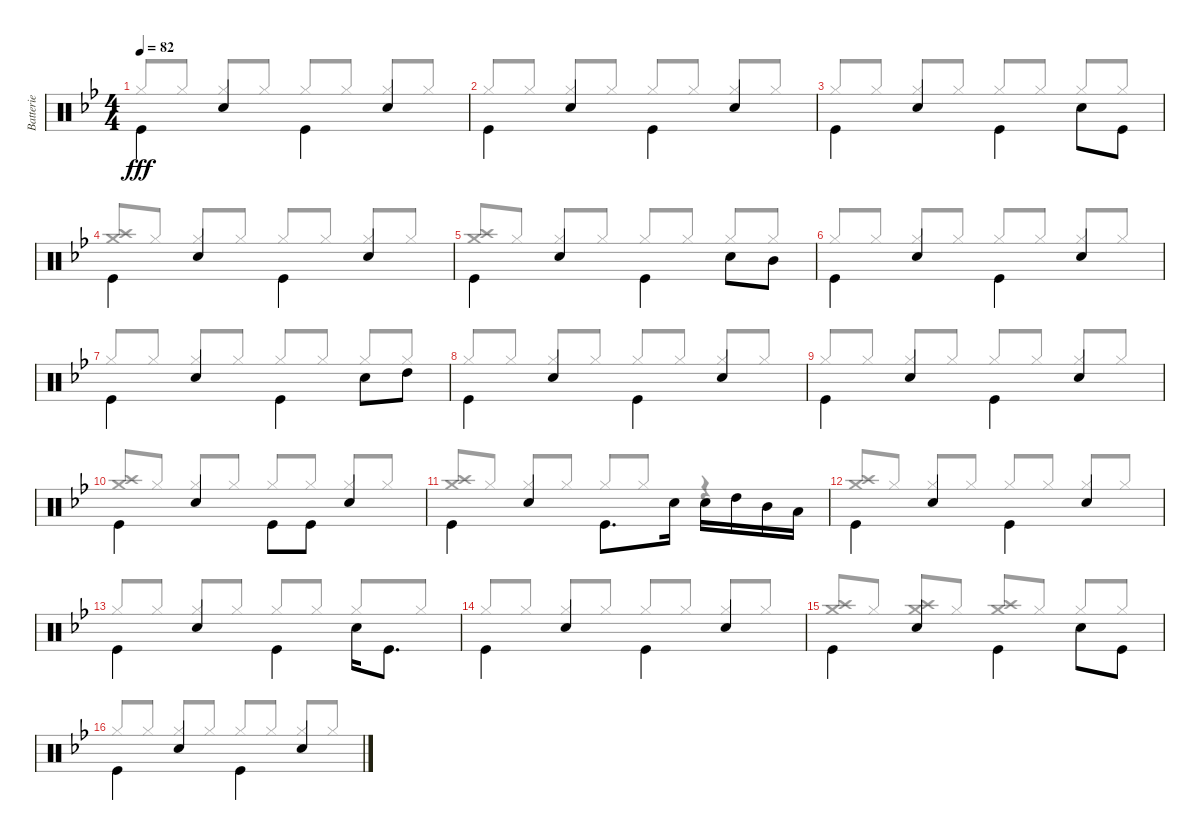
\track ("Batterie" "Batterie") {instrument percussion}
\staff {score}
\articulation defaults
\voice
\ts (4 4)
\tempo 82
\clef neutral
\ks bb "Kick (hit)".4{dy fff beam Down} "Snare (hit) 2".4 "Kick (hit)".4{beam Down} "Snare (hit) 2".4
|
"Kick (hit)".4{beam Down} "Snare (hit) 2".4 "Kick (hit)".4{beam Down} "Snare (hit) 2".4 |
"Kick (hit)".4{beam Down} "Snare (hit) 2".4 "Kick (hit)".4{beam Down} "Snare (hit) 2".8{beam Down} "Kick (hit)".8{beam Down} |
"Kick (hit)".4{beam Down} "Snare (hit) 2".4 "Kick (hit)".4{beam Down} "Snare (hit) 2".4 |
"Kick (hit)".4{beam Down} "Snare (hit) 2".4 "Kick (hit)".4{beam Down} "Snare (hit) 2".8{beam Down} "Mid Tom (hit)".8{beam Down} |
"Kick (hit)".4{beam Down} "Snare (hit) 2".4 "Kick (hit)".4{beam Down} "Snare (hit) 2".4 |
"Kick (hit)".4{beam Down} "Snare (hit) 2".4 "Kick (hit)".4{beam Down} "Snare (hit) 2".8{beam Down} "High Tom (hit)".8{beam Down} |
"Kick (hit)".4{beam Down} "Snare (hit) 2".4 "Kick (hit)".4{beam Down} "Snare (hit) 2".4 |
"Kick (hit)".4{beam Down} "Snare (hit) 2".4 "Kick (hit)".4{beam Down} "Snare (hit) 2".4 |
"Kick (hit)".4{beam Down} "Snare (hit) 2".4 "Kick (hit)".8{beam Down} "Kick (hit)".8{beam Down} "Snare (hit) 2".4 |
"Kick (hit)".4{beam Down} "Snare (hit) 2".4 "Kick (hit)".8{d beam Down} "Snare (hit) 2".16{beam Down} "Snare (hit) 2".16{beam Down} "High Tom (hit)".16{beam Down} "Mid Tom (hit)".16{beam Down} "Low Tom (hit)".16{beam Down} |
"Kick (hit)".4{beam Down} "Snare (hit) 2".4 "Kick (hit)".4{beam Down} "Snare (hit) 2".4 |
"Kick (hit)".4{beam Down} "Snare (hit) 2".4 "Kick (hit)".4{beam Down} "Snare (hit) 2".16{beam Down} "Kick (hit)".8{d beam Down} |
"Kick (hit)".4{beam Down} "Snare (hit) 2".4 "Kick (hit)".4{beam Down} "Snare (hit) 2".4 |
"Kick (hit)".4{beam Down} "Snare (hit) 2".4 "Kick (hit)".4{beam Down} "Snare (hit) 2".8{beam Down} "Kick (hit)".8{beam Down} |
"Kick (hit)".4{beam Down} "Snare (hit) 2".4 "Kick (hit)".4{beam Down} "Snare (hit) 2".4
\voice
\clef neutral
\ottava regular
\simile none
\ks bb "Hi-Hat (closed)".8{dy fff beam Up} "Hi-Hat (closed)".8{beam Up} "Hi-Hat (closed)".8{beam Up} "Hi-Hat (closed)".8{beam Up} "Hi-Hat (closed)".8{beam Up} "Hi-Hat (closed)".8{beam Up} "Hi-Hat (closed)".8{beam Up} "Hi-Hat (closed)".8{beam Up}
|
"Hi-Hat (closed)".8{beam Up} "Hi-Hat (closed)".8{beam Up} "Hi-Hat (closed)".8{beam Up} "Hi-Hat (closed)".8{beam Up} "Hi-Hat (closed)".8{beam Up} "Hi-Hat (closed)".8{beam Up} "Hi-Hat (closed)".8{beam Up} "Hi-Hat (closed)".8{beam Up} |
"Hi-Hat (closed)".8{beam Up} "Hi-Hat (closed)".8{beam Up} "Hi-Hat (closed)".8{beam Up} "Hi-Hat (closed)".8{beam Up} "Hi-Hat (closed)".8{beam Up} "Hi-Hat (closed)".8{beam Up} "Hi-Hat (closed)".8{beam Up} "Hi-Hat (closed)".8{beam Up} |
("Crash medium (hit)" "Crash high (hit)").8{beam Up} "Hi-Hat (closed)".8{beam Up} "Hi-Hat (closed)".8{beam Up} "Hi-Hat (closed)".8{beam Up} "Hi-Hat (closed)".8{beam Up} "Hi-Hat (closed)".8{beam Up} "Hi-Hat (closed)".8{beam Up} "Hi-Hat (closed)".8{beam Up} |
("Crash medium (hit)" "Crash high (hit)").8{beam Up} "Hi-Hat (closed)".8{beam Up} "Hi-Hat (closed)".8{beam Up} "Hi-Hat (closed)".8{beam Up} "Hi-Hat (closed)".8{beam Up} "Hi-Hat (closed)".8{beam Up} "Hi-Hat (closed)".8{beam Up} "Hi-Hat (closed)".8{beam Up} |
"Hi-Hat (closed)".8{beam Up} "Hi-Hat (closed)".8{beam Up} "Hi-Hat (closed)".8{beam Up} "Hi-Hat (closed)".8{beam Up} "Hi-Hat (closed)".8{beam Up} "Hi-Hat (closed)".8{beam Up} "Hi-Hat (closed)".8{beam Up} "Hi-Hat (closed)".8{beam Up} |
"Hi-Hat (closed)".8{beam Up} "Hi-Hat (closed)".8{beam Up} "Hi-Hat (closed)".8{beam Up} "Hi-Hat (closed)".8{beam Up} "Hi-Hat (closed)".8{beam Up} "Hi-Hat (closed)".8{beam Up} "Hi-Hat (closed)".8{beam Up} "Hi-Hat (closed)".8{beam Up} |
"Hi-Hat (closed)".8{beam Up} "Hi-Hat (closed)".8{beam Up} "Hi-Hat (closed)".8{beam Up} "Hi-Hat (closed)".8{beam Up} "Hi-Hat (closed)".8{beam Up} "Hi-Hat (closed)".8{beam Up} "Hi-Hat (closed)".8{beam Up} "Hi-Hat (closed)".8{beam Up} |
"Hi-Hat (closed)".8{beam Up} "Hi-Hat (closed)".8{beam Up} "Hi-Hat (closed)".8{beam Up} "Hi-Hat (closed)".8{beam Up} "Hi-Hat (closed)".8{beam Up} "Hi-Hat (closed)".8{beam Up} "Hi-Hat (closed)".8{beam Up} "Hi-Hat (closed)".8{beam Up} |
("Crash medium (hit)" "Crash high (hit)").8{beam Up} "Hi-Hat (closed)".8{beam Up} "Hi-Hat (closed)".8{beam Up} "Hi-Hat (closed)".8{beam Up} "Hi-Hat (closed)".8{beam Up} "Hi-Hat (closed)".8{beam Up} "Hi-Hat (closed)".8{beam Up} "Hi-Hat (closed)".8{beam Up} |
("Crash medium (hit)" "Crash high (hit)").8{beam Up} "Hi-Hat (closed)".8{beam Up} "Hi-Hat (closed)".8{beam Up} "Hi-Hat (closed)".8{beam Up} "Hi-Hat (closed)".8{beam Up} "Hi-Hat (closed)".8{beam Up} r.4 |
("Crash medium (hit)" "Crash high (hit)").8{beam Up} "Hi-Hat (closed)".8{beam Up} "Hi-Hat (closed)".8{beam Up} "Hi-Hat (closed)".8{beam Up} "Hi-Hat (closed)".8{beam Up} "Hi-Hat (closed)".8{beam Up} "Hi-Hat (closed)".8{beam Up} "Hi-Hat (closed)".8{beam Up} |
"Hi-Hat (closed)".8{beam Up} "Hi-Hat (closed)".8{beam Up} "Hi-Hat (closed)".8{beam Up} "Hi-Hat (closed)".8{beam Up} "Hi-Hat (closed)".8{beam Up} "Hi-Hat (closed)".8{beam Up} "Hi-Hat (closed)".8{beam Up} "Hi-Hat (closed)".8{beam Up} |
"Hi-Hat (closed)".8{beam Up} "Hi-Hat (closed)".8{beam Up} "Hi-Hat (closed)".8{beam Up} "Hi-Hat (closed)".8{beam Up} "Hi-Hat (closed)".8{beam Up} "Hi-Hat (closed)".8{beam Up} "Hi-Hat (closed)".8{beam Up} "Hi-Hat (closed)".8{beam Up} |
("Crash medium (hit)" "Crash high (hit)").8{beam Up} "Hi-Hat (closed)".8{beam Up} ("Crash medium (hit)" "Crash high (hit)").8{beam Up} "Hi-Hat (closed)".8{beam Up} ("Crash medium (hit)" "Crash high (hit)").8{beam Up} "Hi-Hat (closed)".8{beam Up} "Hi-Hat (closed)".8{beam Up} "Hi-Hat (closed)".8{beam Up} |
"Hi-Hat (closed)".8{beam Up} "Hi-Hat (closed)".8{beam Up} "Hi-Hat (closed)".8{beam Up} "Hi-Hat (closed)".8{beam Up} "Hi-Hat (closed)".8{beam Up} "Hi-Hat (closed)".8{beam Up} "Hi-Hat (closed)".8{beam Up} "Hi-Hat (closed)".8{beam Up}
